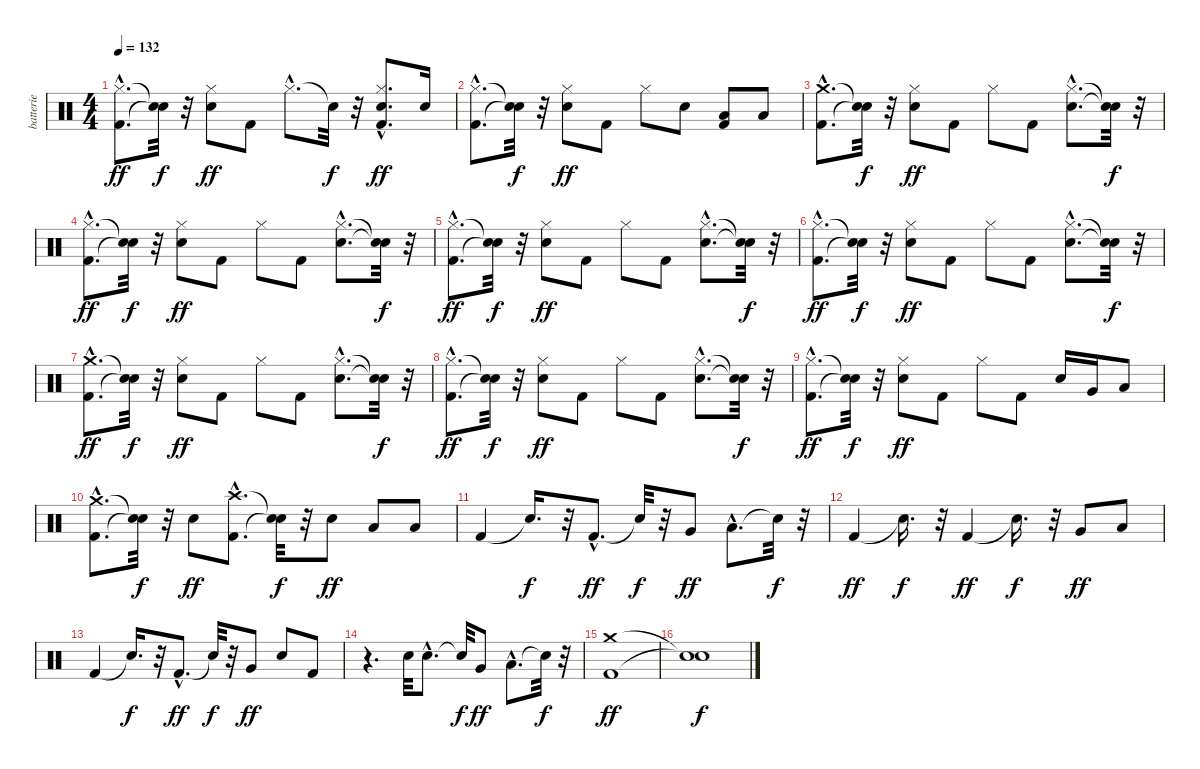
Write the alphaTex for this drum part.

\track ("batterie" "batterie") {instrument percussion}
\staff {score}
\articulation defaults
\ts (4 4)
\tempo 132
\clef neutral
\ks c
("Kick (hit) 2"{hac} "Hi-Hat (closed)"{hac}).8{d dy ff} ("Snare (hit)"{t} "Snare (hit)"{t}).32{dy f} r.32 ("Electric Snare (hit)" "Hi-Hat (closed)").8{dy ff} "Kick (hit) 2".8 "Hi-Hat (closed)"{hac}.8{d} "Snare (hit)"{t}.32{dy f} r.32 ("Kick (hit) 2"{hac} "Electric Snare (hit)"{hac} "Hi-Hat (closed)"{hac}).8{d dy ff} "Electric Snare (hit)".16 |
("Kick (hit) 2"{hac} "Hi-Hat (closed)"{hac}).8{d} ("Snare (hit)"{t} "Snare (hit)"{t}).32{dy f} r.32 ("Electric Snare (hit)" "Hi-Hat (closed)").8{dy ff} "Kick (hit) 2".8 "Hi-Hat (closed)".8 "Electric Snare (hit)".8 ("Kick (hit) 2" "Low Tom (hit)").8 "Low Floor Tom (hit)".8 |
("Kick (hit) 2"{hac} "Crash medium (hit)"{hac}).8{d} ("Snare (hit)"{t} "Snare (hit)"{t}).32{dy f} r.32 ("Electric Snare (hit)" "Hi-Hat (closed)").8{dy ff} "Kick (hit) 2".8 "Hi-Hat (closed)".8 "Kick (hit) 2".8 ("Electric Snare (hit)"{hac} "Hi-Hat (closed)"{hac}).8{d} ("Snare (hit)"{t} "Snare (hit)"{t}).32{dy f} r.32 |
("Kick (hit) 2"{hac} "Hi-Hat (closed)"{hac}).8{d dy ff} ("Snare (hit)"{t} "Snare (hit)"{t}).32{dy f} r.32 ("Electric Snare (hit)" "Hi-Hat (closed)").8{dy ff} "Kick (hit) 2".8 "Hi-Hat (closed)".8 "Kick (hit) 2".8 ("Electric Snare (hit)"{hac} "Hi-Hat (closed)"{hac}).8{d} ("Snare (hit)"{t} "Snare (hit)"{t}).32{dy f} r.32 |
("Kick (hit) 2"{hac} "Hi-Hat (closed)"{hac}).8{d dy ff} ("Snare (hit)"{t} "Snare (hit)"{t}).32{dy f} r.32 ("Electric Snare (hit)" "Hi-Hat (closed)").8{dy ff} "Kick (hit) 2".8 "Hi-Hat (closed)".8 "Kick (hit) 2".8 ("Electric Snare (hit)"{hac} "Hi-Hat (closed)"{hac}).8{d} ("Snare (hit)"{t} "Snare (hit)"{t}).32{dy f} r.32 |
("Kick (hit) 2"{hac} "Hi-Hat (closed)"{hac}).8{d dy ff} ("Snare (hit)"{t} "Snare (hit)"{t}).32{dy f} r.32 ("Electric Snare (hit)" "Hi-Hat (closed)").8{dy ff} "Kick (hit) 2".8 "Hi-Hat (closed)".8 "Kick (hit) 2".8 ("Electric Snare (hit)"{hac} "Hi-Hat (closed)"{hac}).8{d} ("Snare (hit)"{t} "Snare (hit)"{t}).32{dy f} r.32 |
("Kick (hit) 2"{hac} "Crash medium (hit)"{hac}).8{d dy ff} ("Snare (hit)"{t} "Snare (hit)"{t}).32{dy f} r.32 ("Electric Snare (hit)" "Hi-Hat (closed)").8{dy ff} "Kick (hit) 2".8 "Hi-Hat (closed)".8 "Kick (hit) 2".8 ("Electric Snare (hit)"{hac} "Hi-Hat (closed)"{hac}).8{d} ("Snare (hit)"{t} "Snare (hit)"{t}).32{dy f} r.32 |
("Kick (hit) 2"{hac} "Hi-Hat (closed)"{hac}).8{d dy ff} ("Snare (hit)"{t} "Snare (hit)"{t}).32{dy f} r.32 ("Electric Snare (hit)" "Hi-Hat (closed)").8{dy ff} "Kick (hit) 2".8 "Hi-Hat (closed)".8 "Kick (hit) 2".8 ("Electric Snare (hit)"{hac} "Hi-Hat (closed)"{hac}).8{d} ("Snare (hit)"{t} "Snare (hit)"{t}).32{dy f} r.32 |
("Kick (hit) 2"{hac} "Hi-Hat (closed)"{hac}).8{d dy ff} ("Snare (hit)"{t} "Snare (hit)"{t}).32{dy f} r.32 ("Electric Snare (hit)" "Hi-Hat (closed)").8{dy ff} "Kick (hit) 2".8 "Hi-Hat (closed)".8 "Kick (hit) 2".8 "Electric Snare (hit)".16 "Very Low Tom (hit)".16 "Low Floor Tom (hit)".8 |
("Kick (hit) 2"{hac} "Crash medium (hit)"{hac}).8{d} ("Snare (hit)"{t} "Snare (hit)"{t}).32{dy f} r.32 "Electric Snare (hit)".8{dy ff} ("Kick (hit) 2"{hac} "Crash high (hit)"{hac}).8{d} ("Snare (hit)"{t} "Snare (hit)"{t}).32{dy f} r.32 "Electric Snare (hit)".8{dy ff} "Low Tom (hit)".8 "Low Floor Tom (hit)".8 |
"Kick (hit) 2".4 "Snare (hit)"{t}.16{d dy f} r.32 "Kick (hit) 2"{hac}.8{d dy ff} "Snare (hit)"{t}.32{dy f} r.32 "Very Low Tom (hit)".8{dy ff} "Low Floor Tom (hit)"{hac}.8{d} "Snare (hit)"{t}.32{dy f} r.32 |
"Kick (hit) 2".4{dy ff} "Snare (hit)"{t}.16{d dy f} r.32 "Kick (hit) 2".4{dy ff} "Snare (hit)"{t}.16{d dy f} r.32 "Very Low Tom (hit)".8{dy ff} "Low Floor Tom (hit)".8 |
"Kick (hit) 2".4 "Snare (hit)"{t}.16{d dy f} r.32 "Kick (hit) 2"{hac}.8{d dy ff} "Snare (hit)"{t}.32{dy f} r.32 "Very Low Tom (hit)".8{dy ff} "Electric Snare (hit)".8 "Kick (hit) 2".8 |
r.4{d} "Electric Snare (hit)".32 "Electric Snare (hit)"{hac}.8{d} "Snare (hit)"{t}.32{dy f} "Very Low Tom (hit)".8{dy ff} "Low Floor Tom (hit)"{hac}.8{d} "Snare (hit)"{t}.32{dy f} r.32 |
("Kick (hit) 2" "Crash medium (hit)").1{dy ff} |
("Snare (hit)"{t} "Snare (hit)"{t}).1{dy f}
